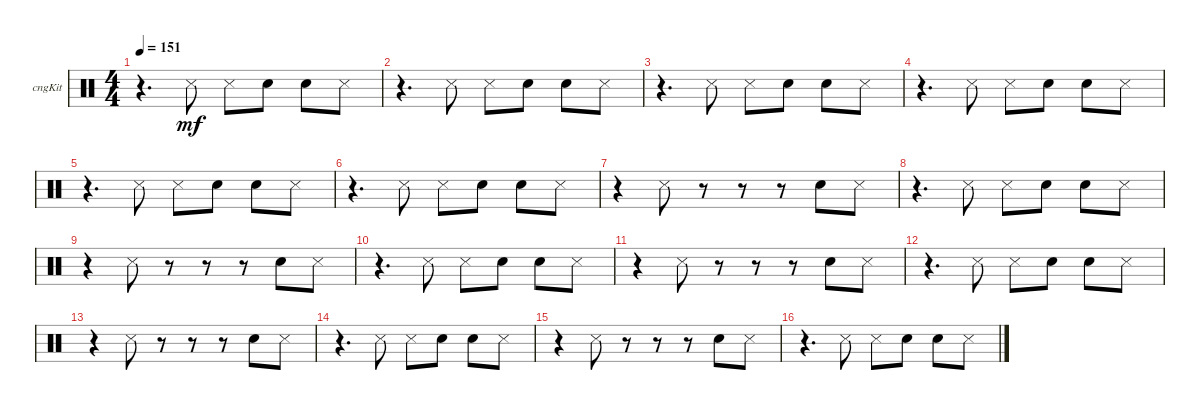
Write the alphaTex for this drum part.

\bracketExtendMode groupsimilarinstruments
\firstSystemTrackNameOrientation horizontal
\otherSystemsTrackNameOrientation horizontal
\track ("Congas" "cngKit") {instrument percussion}
\staff {score}
\articulation defaults
\ts (4 4)
\tempo 151
\clef neutral
\ks aminor
r.4{d dy mf} "Snare (side stick) 3".8 "Snare (side stick) 3".8 "Snare (hit) 2".8 "Snare (hit) 2".8 "Snare (side stick) 3".8 |
r.4{d} "Snare (side stick) 3".8 "Snare (side stick) 3".8 "Snare (hit) 2".8 "Snare (hit) 2".8 "Snare (side stick) 3".8 |
r.4{d} "Snare (side stick) 3".8 "Snare (side stick) 3".8 "Snare (hit) 2".8 "Snare (hit) 2".8 "Snare (side stick) 3".8 |
r.4{d} "Snare (side stick) 3".8 "Snare (side stick) 3".8 "Snare (hit) 2".8 "Snare (hit) 2".8 "Snare (side stick) 3".8 |
r.4{d} "Snare (side stick) 3".8 "Snare (side stick) 3".8 "Snare (hit) 2".8 "Snare (hit) 2".8 "Snare (side stick) 3".8 |
r.4{d} "Snare (side stick) 3".8 "Snare (side stick) 3".8 "Snare (hit) 2".8 "Snare (hit) 2".8 "Snare (side stick) 3".8 |
r.4 "Snare (side stick) 3".8 r.8 r.8 r.8 "Snare (hit) 2".8 "Snare (side stick) 3".8 |
r.4{d} "Snare (side stick) 3".8 "Snare (side stick) 3".8 "Snare (hit) 2".8 "Snare (hit) 2".8 "Snare (side stick) 3".8 |
r.4 "Snare (side stick) 3".8 r.8 r.8 r.8 "Snare (hit) 2".8 "Snare (side stick) 3".8 |
r.4{d} "Snare (side stick) 3".8 "Snare (side stick) 3".8 "Snare (hit) 2".8 "Snare (hit) 2".8 "Snare (side stick) 3".8 |
r.4 "Snare (side stick) 3".8 r.8 r.8 r.8 "Snare (hit) 2".8 "Snare (side stick) 3".8 |
r.4{d} "Snare (side stick) 3".8 "Snare (side stick) 3".8 "Snare (hit) 2".8 "Snare (hit) 2".8 "Snare (side stick) 3".8 |
r.4 "Snare (side stick) 3".8 r.8 r.8 r.8 "Snare (hit) 2".8 "Snare (side stick) 3".8 |
r.4{d} "Snare (side stick) 3".8 "Snare (side stick) 3".8 "Snare (hit) 2".8 "Snare (hit) 2".8 "Snare (side stick) 3".8 |
r.4 "Snare (side stick) 3".8 r.8 r.8 r.8 "Snare (hit) 2".8 "Snare (side stick) 3".8 |
r.4{d} "Snare (side stick) 3".8 "Snare (side stick) 3".8 "Snare (hit) 2".8 "Snare (hit) 2".8 "Snare (side stick) 3".8
